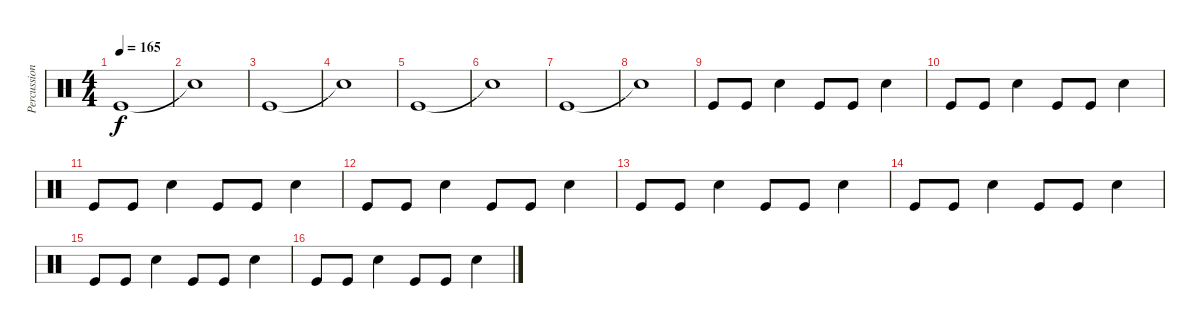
\track ("Percussion" "Percussion") {instrument percussion}
\staff {score}
\articulation defaults
\ts (4 4)
\tempo 165
\clef neutral
\ks c "Kick (hit)".1{dy f}
|
"Snare (hit)"{t}.1 |
"Kick (hit)".1 |
"Snare (hit)"{t}.1 |
"Kick (hit)".1 |
"Snare (hit)"{t}.1 |
"Kick (hit)".1 |
"Snare (hit)"{t}.1 |
"Kick (hit)".8 "Kick (hit)".8 "Snare (hit) 2".4 "Kick (hit)".8 "Kick (hit)".8 "Snare (hit) 2".4 |
"Kick (hit)".8 "Kick (hit)".8 "Snare (hit) 2".4 "Kick (hit)".8 "Kick (hit)".8 "Snare (hit) 2".4 |
"Kick (hit)".8 "Kick (hit)".8 "Snare (hit) 2".4 "Kick (hit)".8 "Kick (hit)".8 "Snare (hit) 2".4 |
"Kick (hit)".8 "Kick (hit)".8 "Snare (hit) 2".4 "Kick (hit)".8 "Kick (hit)".8 "Snare (hit) 2".4 |
"Kick (hit)".8 "Kick (hit)".8 "Snare (hit) 2".4 "Kick (hit)".8 "Kick (hit)".8 "Snare (hit) 2".4 |
"Kick (hit)".8 "Kick (hit)".8 "Snare (hit) 2".4 "Kick (hit)".8 "Kick (hit)".8 "Snare (hit) 2".4 |
"Kick (hit)".8 "Kick (hit)".8 "Snare (hit) 2".4 "Kick (hit)".8 "Kick (hit)".8 "Snare (hit) 2".4 |
"Kick (hit)".8 "Kick (hit)".8 "Snare (hit) 2".4 "Kick (hit)".8 "Kick (hit)".8 "Snare (hit) 2".4
